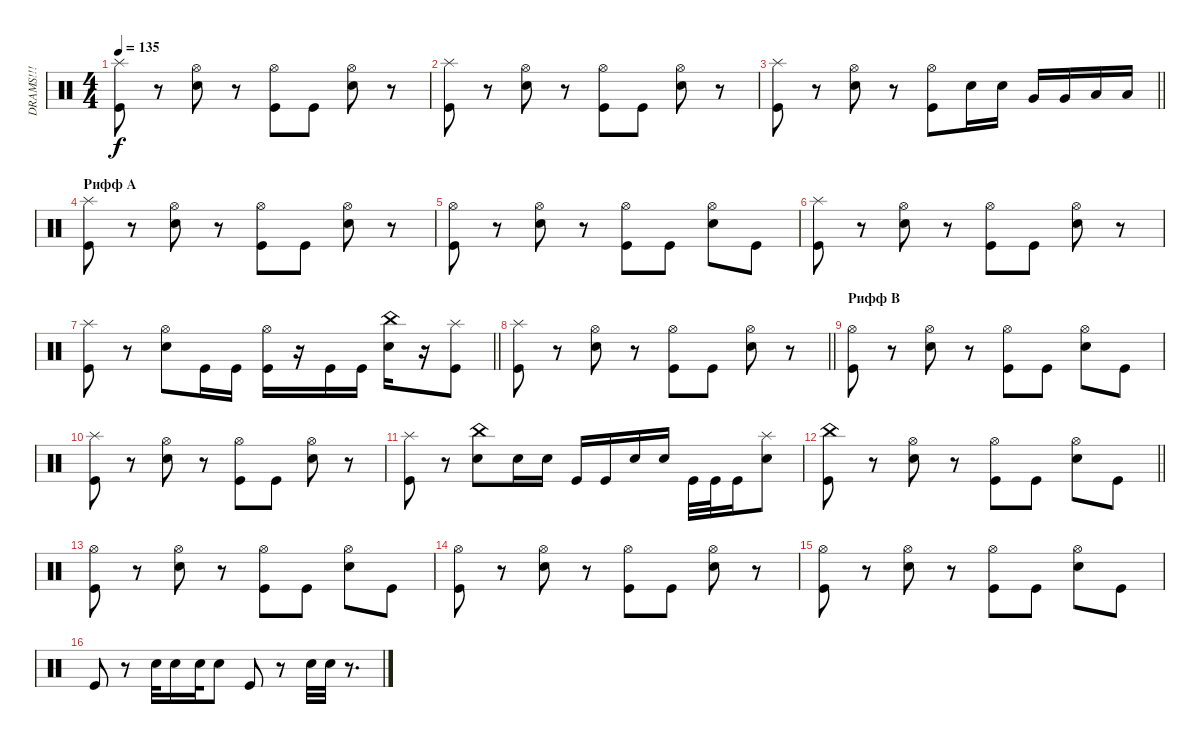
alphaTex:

\track ("DRAMS!!!" "DRAMS!!!") {instrument percussion}
\staff {score}
\articulation defaults
\ts (4 4)
\tempo 135
\clef neutral
\ks c
("Kick (hit)" "Splash (hit)").8{dy f} r.8 ("Electric Snare (hit)" "Hi-Hat (open)").8 r.8 ("Kick (hit)" "Hi-Hat (open)").8 "Kick (hit)".8 ("Electric Snare (hit)" "Hi-Hat (open)").8 r.8 |
("Kick (hit)" "Splash (hit)").8 r.8 ("Electric Snare (hit)" "Hi-Hat (open)").8 r.8 ("Kick (hit)" "Hi-Hat (open)").8 "Kick (hit)".8 ("Electric Snare (hit)" "Hi-Hat (open)").8 r.8 |
\barLineRight lightlight
("Kick (hit)" "Splash (hit)").8 r.8 ("Electric Snare (hit)" "Hi-Hat (open)").8 r.8 ("Kick (hit)" "Hi-Hat (open)").8 "Electric Snare (hit)".16 "Electric Snare (hit)".16 "Very Low Tom (hit)".16 "Very Low Tom (hit)".16 "Low Tom (hit)".16 "Low Tom (hit)".16 |
\section ("" "Рифф А")
("Kick (hit)" "Splash (hit)").8 r.8 ("Electric Snare (hit)" "Hi-Hat (open)").8 r.8 ("Kick (hit)" "Hi-Hat (open)").8 "Kick (hit)".8 ("Electric Snare (hit)" "Hi-Hat (open)").8 r.8 |
("Kick (hit)" "Hi-Hat (open)").8 r.8 ("Electric Snare (hit)" "Hi-Hat (open)").8 r.8 ("Kick (hit)" "Hi-Hat (open)").8 "Kick (hit)".8 ("Electric Snare (hit)" "Hi-Hat (open)").8 "Kick (hit)".8 |
("Kick (hit)" "Splash (hit)").8 r.8 ("Electric Snare (hit)" "Hi-Hat (open)").8 r.8 ("Kick (hit)" "Hi-Hat (open)").8 "Kick (hit)".8 ("Electric Snare (hit)" "Hi-Hat (open)").8 r.8 |
\barLineRight lightlight
("Kick (hit)" "Splash (hit)").8 r.8 ("Electric Snare (hit)" "Hi-Hat (open)").8 "Kick (hit)".16 "Kick (hit)".16 ("Kick (hit)" "Hi-Hat (open)").16 r.16 "Kick (hit)".16 "Kick (hit)".16 ("Electric Snare (hit)" "China (hit)").16 r.16 ("Kick (hit)" "Splash (hit)").8 |
\section ("" "")
\barLineRight lightlight
("Kick (hit)" "Splash (hit)").8 r.8 ("Electric Snare (hit)" "Hi-Hat (open)").8 r.8 ("Kick (hit)" "Hi-Hat (open)").8 "Kick (hit)".8 ("Electric Snare (hit)" "Hi-Hat (open)").8 r.8 |
\section ("" "Рифф В")
("Kick (hit)" "Hi-Hat (open)").8 r.8 ("Electric Snare (hit)" "Hi-Hat (open)").8 r.8 ("Kick (hit)" "Hi-Hat (open)").8 "Kick (hit)".8 ("Electric Snare (hit)" "Hi-Hat (open)").8 "Kick (hit)".8 |
("Kick (hit)" "Splash (hit)").8 r.8 ("Electric Snare (hit)" "Hi-Hat (open)").8 r.8 ("Kick (hit)" "Hi-Hat (open)").8 "Kick (hit)".8 ("Electric Snare (hit)" "Hi-Hat (open)").8 r.8 |
("Kick (hit)" "Splash (hit)").8 r.8 ("Electric Snare (hit)" "China (hit)").8 "Electric Snare (hit)".16 "Electric Snare (hit)".16 "Kick (hit)".16 "Kick (hit)".16 "Electric Snare (hit)".16 "Electric Snare (hit)".16 "Kick (hit)".32 "Kick (hit)".32 "Kick (hit)".16 ("Electric Snare (hit)" "Splash (hit)").8 |
\barLineRight lightlight
("Kick (hit)" "China (hit)").8 r.8 ("Electric Snare (hit)" "Hi-Hat (open)").8 r.8 ("Kick (hit)" "Hi-Hat (open)").8 "Kick (hit)".8 ("Electric Snare (hit)" "Hi-Hat (open)").8 "Kick (hit)".8 |
("Kick (hit)" "Hi-Hat (open)").8 r.8 ("Electric Snare (hit)" "Hi-Hat (open)").8 r.8 ("Kick (hit)" "Hi-Hat (open)").8 "Kick (hit)".8 ("Electric Snare (hit)" "Hi-Hat (open)").8 "Kick (hit)".8 |
("Kick (hit)" "Hi-Hat (open)").8 r.8 ("Electric Snare (hit)" "Hi-Hat (open)").8 r.8 ("Kick (hit)" "Hi-Hat (open)").8 "Kick (hit)".8 ("Electric Snare (hit)" "Hi-Hat (open)").8 r.8 |
("Kick (hit)" "Hi-Hat (open)").8 r.8 ("Electric Snare (hit)" "Hi-Hat (open)").8 r.8 ("Kick (hit)" "Hi-Hat (open)").8 "Kick (hit)".8 ("Electric Snare (hit)" "Hi-Hat (open)").8 "Kick (hit)".8 |
"Kick (hit)".8 r.8 "Electric Snare (hit)".32 "Electric Snare (hit)".16 "Electric Snare (hit)".32 "Electric Snare (hit)".8 "Kick (hit)".8 r.8 "Electric Snare (hit)".32 "Electric Snare (hit)".32 r.8{d}
